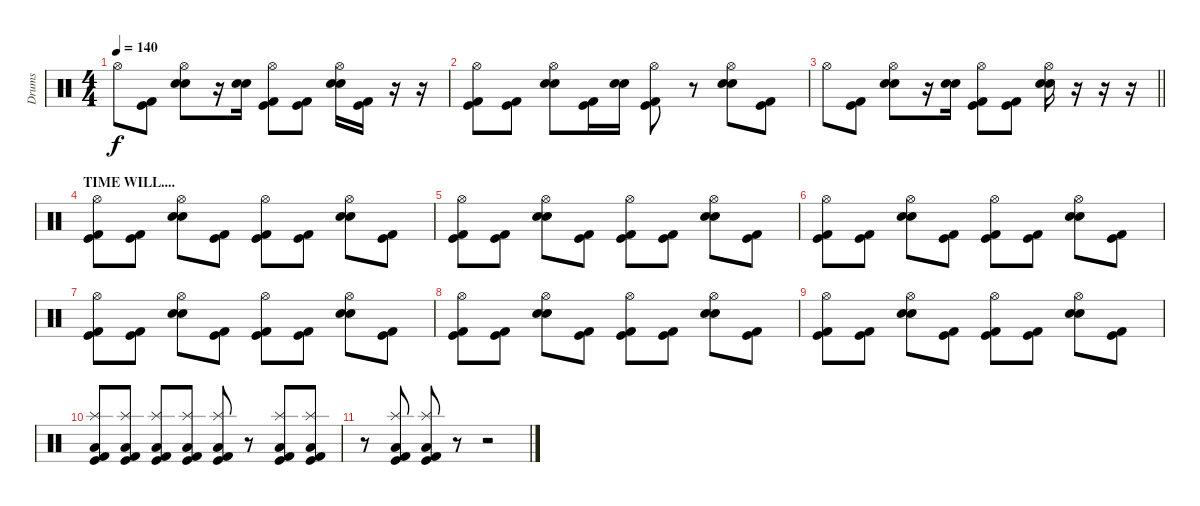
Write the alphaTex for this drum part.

\track ("Drums" "Drums") {instrument percussion}
\staff {score}
\articulation defaults
\ts (4 4)
\tempo 140
\clef neutral
\ks c "Hi-Hat (open)".8{dy f}
("Kick (hit) 2" "Kick (hit)").8 ("Hi-Hat (open)" "Electric Snare (hit)" "Electric Snare (hit)").8 r.16 ("Electric Snare (hit)" "Electric Snare (hit)").16 ("Hi-Hat (open)" "Kick (hit) 2" "Kick (hit)").8 ("Kick (hit) 2" "Kick (hit)").8 ("Hi-Hat (open)" "Electric Snare (hit)" "Electric Snare (hit)").16 ("Kick (hit) 2" "Kick (hit)").16 r.16 r.16 |
("Hi-Hat (open)" "Kick (hit) 2" "Kick (hit)").8 ("Kick (hit) 2" "Kick (hit)").8 ("Hi-Hat (open)" "Electric Snare (hit)" "Electric Snare (hit)").8 ("Kick (hit) 2" "Kick (hit)").16 ("Electric Snare (hit)" "Electric Snare (hit)").16 ("Hi-Hat (open)" "Kick (hit) 2" "Kick (hit)").8 r.8 ("Hi-Hat (open)" "Electric Snare (hit)" "Electric Snare (hit)").8 ("Kick (hit)" "Kick (hit) 2").8 |
\barLineRight lightlight "Hi-Hat (open)".8
("Kick (hit) 2" "Kick (hit)").8 ("Hi-Hat (open)" "Electric Snare (hit)" "Electric Snare (hit)").8 r.16 ("Electric Snare (hit)" "Electric Snare (hit)").16 ("Hi-Hat (open)" "Kick (hit) 2" "Kick (hit)").8 ("Kick (hit) 2" "Kick (hit)").8 ("Hi-Hat (open)" "Electric Snare (hit)" "Electric Snare (hit)").16 r.16 r.16 r.16 |
\section ("" "TIME WILL....")
("Hi-Hat (open)" "Kick (hit) 2" "Kick (hit)").8 ("Kick (hit) 2" "Kick (hit)").8 ("Hi-Hat (open)" "Electric Snare (hit)" "Electric Snare (hit)").8 ("Kick (hit)" "Kick (hit) 2").8 ("Hi-Hat (open)" "Kick (hit) 2" "Kick (hit)").8 ("Kick (hit) 2" "Kick (hit)").8 ("Hi-Hat (open)" "Electric Snare (hit)" "Electric Snare (hit)").8 ("Kick (hit)" "Kick (hit) 2").8 |
("Hi-Hat (open)" "Kick (hit) 2" "Kick (hit)").8 ("Kick (hit) 2" "Kick (hit)").8 ("Hi-Hat (open)" "Electric Snare (hit)" "Electric Snare (hit)").8 ("Kick (hit)" "Kick (hit) 2").8 ("Hi-Hat (open)" "Kick (hit) 2" "Kick (hit)").8 ("Kick (hit) 2" "Kick (hit)").8 ("Hi-Hat (open)" "Electric Snare (hit)" "Electric Snare (hit)").8 ("Kick (hit)" "Kick (hit) 2").8 |
("Hi-Hat (open)" "Kick (hit) 2" "Kick (hit)").8 ("Kick (hit) 2" "Kick (hit)").8 ("Hi-Hat (open)" "Electric Snare (hit)" "Electric Snare (hit)").8 ("Kick (hit)" "Kick (hit) 2").8 ("Hi-Hat (open)" "Kick (hit) 2" "Kick (hit)").8 ("Kick (hit) 2" "Kick (hit)").8 ("Hi-Hat (open)" "Electric Snare (hit)" "Electric Snare (hit)").8 ("Kick (hit)" "Kick (hit) 2").8 |
("Hi-Hat (open)" "Kick (hit) 2" "Kick (hit)").8 ("Kick (hit) 2" "Kick (hit)").8 ("Hi-Hat (open)" "Electric Snare (hit)" "Electric Snare (hit)").8 ("Kick (hit)" "Kick (hit) 2").8 ("Hi-Hat (open)" "Kick (hit) 2" "Kick (hit)").8 ("Kick (hit) 2" "Kick (hit)").8 ("Hi-Hat (open)" "Electric Snare (hit)" "Electric Snare (hit)").8 ("Kick (hit)" "Kick (hit) 2").8 |
("Hi-Hat (open)" "Kick (hit) 2" "Kick (hit)").8 ("Kick (hit) 2" "Kick (hit)").8 ("Hi-Hat (open)" "Electric Snare (hit)" "Electric Snare (hit)").8 ("Kick (hit)" "Kick (hit) 2").8 ("Hi-Hat (open)" "Kick (hit) 2" "Kick (hit)").8 ("Kick (hit) 2" "Kick (hit)").8 ("Hi-Hat (open)" "Electric Snare (hit)" "Electric Snare (hit)").8 ("Kick (hit)" "Kick (hit) 2").8 |
("Hi-Hat (open)" "Kick (hit) 2" "Kick (hit)").8 ("Kick (hit) 2" "Kick (hit)").8 ("Hi-Hat (open)" "Electric Snare (hit)" "Electric Snare (hit)").8 ("Kick (hit)" "Kick (hit) 2").8 ("Hi-Hat (open)" "Kick (hit) 2" "Kick (hit)").8 ("Kick (hit) 2" "Kick (hit)").8 ("Hi-Hat (open)" "Electric Snare (hit)" "Electric Snare (hit)").8 ("Kick (hit)" "Kick (hit) 2").8 |
("Splash (hit)" "Low Floor Tom (hit)" "Kick (hit) 2" "Kick (hit)").8 ("Splash (hit)" "Low Floor Tom (hit)" "Kick (hit) 2" "Kick (hit)").8 ("Splash (hit)" "Low Floor Tom (hit)" "Kick (hit) 2" "Kick (hit)").8 ("Splash (hit)" "Low Floor Tom (hit)" "Kick (hit)" "Kick (hit) 2").8 ("Splash (hit)" "Low Floor Tom (hit)" "Kick (hit) 2" "Kick (hit)").8 r.8 ("Splash (hit)" "Low Floor Tom (hit)" "Kick (hit) 2" "Kick (hit)").8 ("Splash (hit)" "Low Floor Tom (hit)" "Kick (hit)" "Kick (hit) 2").8 |
r.8 ("Splash (hit)" "Low Floor Tom (hit)" "Kick (hit) 2" "Kick (hit)").8 ("Splash (hit)" "Low Floor Tom (hit)" "Kick (hit) 2" "Kick (hit)").8 r.8 r.2
